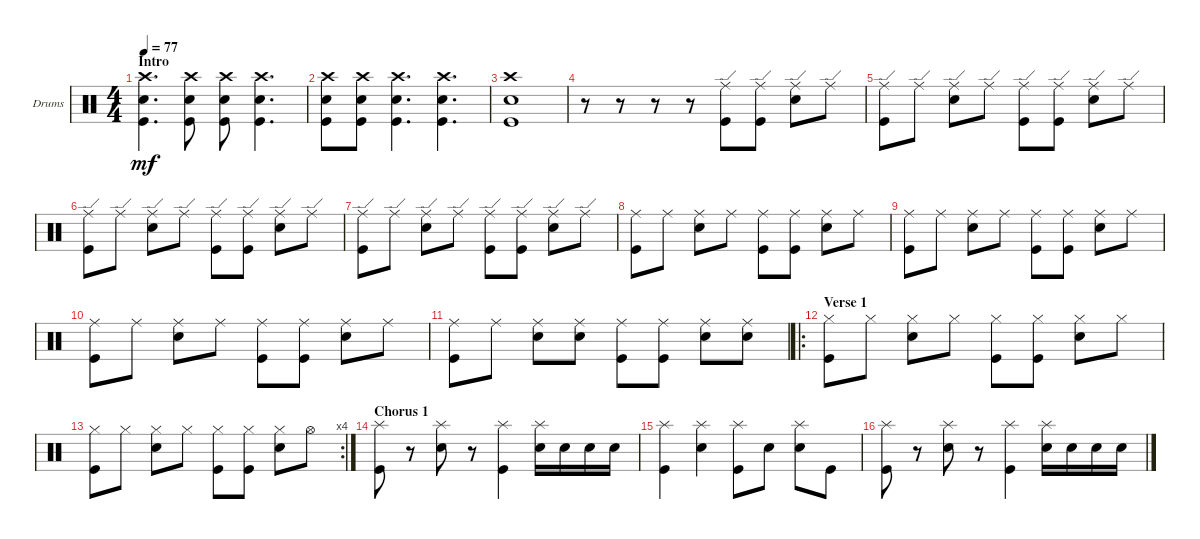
\defaultSystemsLayout 4
\bracketExtendMode groupsimilarinstruments
\firstSystemTrackNameOrientation horizontal
\otherSystemsTrackNameOrientation horizontal
\track ("Drumkit" "Drums") {instrument percussion}
\staff {score}
\articulation defaults
\ts (4 4)
\section ("" "Intro")
\tempo 77
\clef neutral
\ks c
("Crash high (hit)" "Kick (hit)" "Snare (hit) 2").4{d dy mf} ("Crash high (hit)" "Snare (hit) 2" "Kick (hit)").8 ("Crash high (hit)" "Snare (hit) 2" "Kick (hit)").8 ("Crash high (hit)" "Snare (hit) 2" "Kick (hit)").4{d} |
("Crash high (hit)" "Snare (hit) 2" "Kick (hit)").8 ("Crash high (hit)" "Snare (hit) 2" "Kick (hit)").8 ("Crash high (hit)" "Snare (hit) 2" "Kick (hit)").4{d} ("Crash high (hit)" "Snare (hit) 2" "Kick (hit)").4{d} |
("Crash high (hit)" "Snare (hit) 2" "Kick (hit)").1 |
r.8 r.8 r.8 r.8 ("Kick (hit)" "Ride (edge)").8 ("Kick (hit)" "Ride (edge)").8 ("Snare (hit) 2" "Ride (edge)").8 "Ride (edge)".8 |
("Ride (edge)" "Kick (hit)").8 "Ride (edge)".8 ("Snare (hit) 2" "Ride (edge)").8 "Ride (edge)".8 ("Kick (hit)" "Ride (edge)").8 ("Kick (hit)" "Ride (edge)").8 ("Snare (hit) 2" "Ride (edge)").8 "Ride (edge)".8 |
("Ride (edge)" "Kick (hit)").8 "Ride (edge)".8 ("Snare (hit) 2" "Ride (edge)").8 "Ride (edge)".8 ("Kick (hit)" "Ride (edge)").8 ("Kick (hit)" "Ride (edge)").8 ("Snare (hit) 2" "Ride (edge)").8 "Ride (edge)".8 |
("Ride (edge)" "Kick (hit)").8 "Ride (edge)".8 ("Snare (hit) 2" "Ride (edge)").8 "Ride (edge)".8 ("Kick (hit)" "Ride (edge)").8 ("Kick (hit)" "Ride (edge)").8 ("Snare (hit) 2" "Ride (edge)").8 "Ride (edge)".8 |
("Kick (hit)" "Ride (middle)").8 "Ride (middle)".8 ("Snare (hit) 2" "Ride (middle)").8 "Ride (middle)".8 ("Kick (hit)" "Ride (middle)").8 ("Kick (hit)" "Ride (middle)").8 ("Snare (hit) 2" "Ride (middle)").8 "Ride (middle)".8 |
("Kick (hit)" "Ride (middle)").8 "Ride (middle)".8 ("Snare (hit) 2" "Ride (middle)").8 "Ride (middle)".8 ("Kick (hit)" "Ride (middle)").8 ("Kick (hit)" "Ride (middle)").8 ("Snare (hit) 2" "Ride (middle)").8 "Ride (middle)".8 |
("Kick (hit)" "Ride (middle)").8 "Ride (middle)".8 ("Snare (hit) 2" "Ride (middle)").8 "Ride (middle)".8 ("Kick (hit)" "Ride (middle)").8 ("Kick (hit)" "Ride (middle)").8 ("Snare (hit) 2" "Ride (middle)").8 "Ride (middle)".8 |
("Kick (hit)" "Ride (middle)").8 "Ride (middle)".8 ("Snare (hit) 2" "Ride (middle)").8 ("Ride (middle)" "Snare (hit) 2").8 ("Kick (hit)" "Ride (middle)").8 ("Kick (hit)" "Ride (middle)").8 ("Snare (hit) 2" "Ride (middle)").8 ("Ride (middle)" "Snare (hit) 2").8 |
\ro
\section ("" "Verse 1")
("Kick (hit)" "Hi-Hat (closed)").8 "Hi-Hat (closed)".8 ("Snare (hit) 2" "Hi-Hat (closed)").8 "Hi-Hat (closed)".8 ("Kick (hit)" "Hi-Hat (closed)").8 ("Kick (hit)" "Hi-Hat (closed)").8 ("Snare (hit) 2" "Hi-Hat (closed)").8 "Hi-Hat (closed)".8 |
\rc 4
("Kick (hit)" "Hi-Hat (closed)").8 "Hi-Hat (closed)".8 ("Snare (hit) 2" "Hi-Hat (closed)").8 "Hi-Hat (closed)".8 ("Kick (hit)" "Hi-Hat (closed)").8 ("Kick (hit)" "Hi-Hat (closed)").8 ("Snare (hit) 2" "Hi-Hat (closed)").8 "Hi-Hat (open)".8 |
\section ("" "Chorus 1")
("Kick (hit)" "Splash (hit)").8 r.8 ("Splash (hit)" "Snare (hit) 2").8 r.8 ("Splash (hit)" "Kick (hit)").4 ("Splash (hit)" "Snare (hit) 2").16 "Snare (hit) 2".16 "Snare (hit) 2".16 "Snare (hit) 2".16 |
("Kick (hit)" "Splash (hit)").4 ("Snare (hit) 2" "Splash (hit)").4 ("Kick (hit)" "Splash (hit)").8 "Snare (hit) 2".8 ("Snare (hit) 2" "Splash (hit)").8 "Kick (hit)".8 |
("Kick (hit)" "Splash (hit)").8 r.8 ("Splash (hit)" "Snare (hit) 2").8 r.8 ("Splash (hit)" "Kick (hit)").4 ("Splash (hit)" "Snare (hit) 2").16 "Snare (hit) 2".16 "Snare (hit) 2".16 "Snare (hit) 2".16
